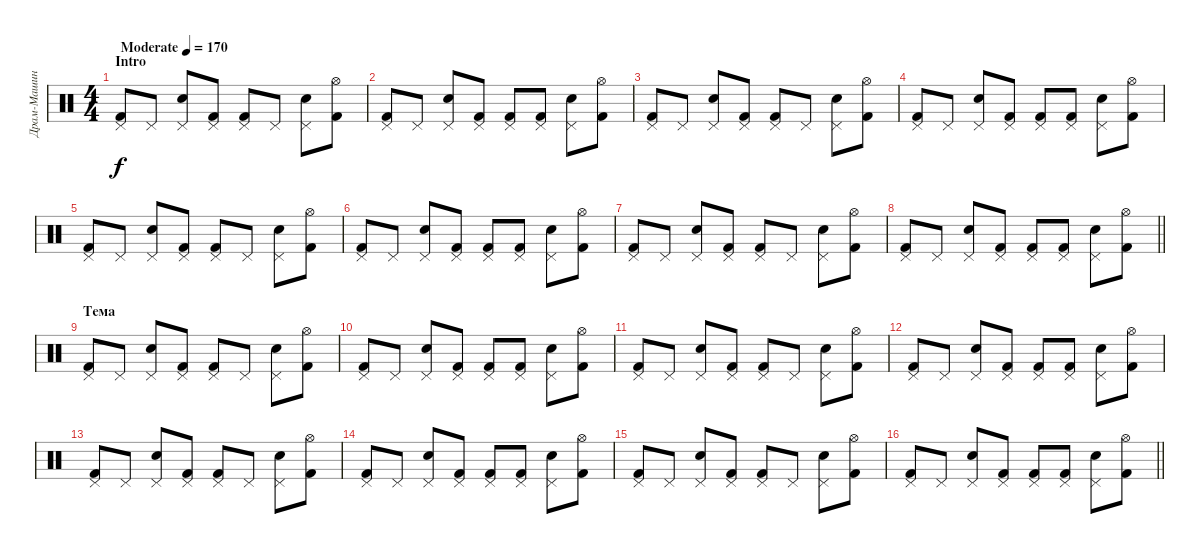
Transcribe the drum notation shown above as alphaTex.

\track ("Драм-Машина" "Драм-Машин") {instrument percussion}
\staff {score}
\articulation defaults
\ts (4 4)
\section ("" "Intro")
\tempo (170 "Moderate")
\clef neutral
\ks c
("Pedal Hi-Hat (hit)" "Kick (hit) 2").8{dy f} "Pedal Hi-Hat (hit)".8 ("Pedal Hi-Hat (hit)" "Electric Snare (hit)").8 ("Pedal Hi-Hat (hit)" "Kick (hit) 2").8 ("Pedal Hi-Hat (hit)" "Kick (hit) 2").8 "Pedal Hi-Hat (hit)".8 ("Pedal Hi-Hat (hit)" "Electric Snare (hit)").8 ("Hi-Hat (open)" "Kick (hit) 2").8 |
("Pedal Hi-Hat (hit)" "Kick (hit) 2").8 "Pedal Hi-Hat (hit)".8 ("Pedal Hi-Hat (hit)" "Electric Snare (hit)").8 ("Pedal Hi-Hat (hit)" "Kick (hit) 2").8 ("Pedal Hi-Hat (hit)" "Kick (hit) 2").8 ("Pedal Hi-Hat (hit)" "Kick (hit) 2").8 ("Pedal Hi-Hat (hit)" "Electric Snare (hit)").8 ("Hi-Hat (open)" "Kick (hit) 2").8 |
("Pedal Hi-Hat (hit)" "Kick (hit) 2").8 "Pedal Hi-Hat (hit)".8 ("Pedal Hi-Hat (hit)" "Electric Snare (hit)").8 ("Pedal Hi-Hat (hit)" "Kick (hit) 2").8 ("Pedal Hi-Hat (hit)" "Kick (hit) 2").8 "Pedal Hi-Hat (hit)".8 ("Pedal Hi-Hat (hit)" "Electric Snare (hit)").8 ("Hi-Hat (open)" "Kick (hit) 2").8 |
("Pedal Hi-Hat (hit)" "Kick (hit) 2").8 "Pedal Hi-Hat (hit)".8 ("Pedal Hi-Hat (hit)" "Electric Snare (hit)").8 ("Pedal Hi-Hat (hit)" "Kick (hit) 2").8 ("Pedal Hi-Hat (hit)" "Kick (hit) 2").8 ("Pedal Hi-Hat (hit)" "Kick (hit) 2").8 ("Pedal Hi-Hat (hit)" "Electric Snare (hit)").8 ("Hi-Hat (open)" "Kick (hit) 2").8 |
("Pedal Hi-Hat (hit)" "Kick (hit) 2").8 "Pedal Hi-Hat (hit)".8 ("Pedal Hi-Hat (hit)" "Electric Snare (hit)").8 ("Pedal Hi-Hat (hit)" "Kick (hit) 2").8 ("Pedal Hi-Hat (hit)" "Kick (hit) 2").8 "Pedal Hi-Hat (hit)".8 ("Pedal Hi-Hat (hit)" "Electric Snare (hit)").8 ("Hi-Hat (open)" "Kick (hit) 2").8 |
("Pedal Hi-Hat (hit)" "Kick (hit) 2").8 "Pedal Hi-Hat (hit)".8 ("Pedal Hi-Hat (hit)" "Electric Snare (hit)").8 ("Pedal Hi-Hat (hit)" "Kick (hit) 2").8 ("Pedal Hi-Hat (hit)" "Kick (hit) 2").8 ("Pedal Hi-Hat (hit)" "Kick (hit) 2").8 ("Pedal Hi-Hat (hit)" "Electric Snare (hit)").8 ("Hi-Hat (open)" "Kick (hit) 2").8 |
("Pedal Hi-Hat (hit)" "Kick (hit) 2").8 "Pedal Hi-Hat (hit)".8 ("Pedal Hi-Hat (hit)" "Electric Snare (hit)").8 ("Pedal Hi-Hat (hit)" "Kick (hit) 2").8 ("Pedal Hi-Hat (hit)" "Kick (hit) 2").8 "Pedal Hi-Hat (hit)".8 ("Pedal Hi-Hat (hit)" "Electric Snare (hit)").8 ("Hi-Hat (open)" "Kick (hit) 2").8 |
\barLineRight lightlight
("Pedal Hi-Hat (hit)" "Kick (hit) 2").8 "Pedal Hi-Hat (hit)".8 ("Pedal Hi-Hat (hit)" "Electric Snare (hit)").8 ("Pedal Hi-Hat (hit)" "Kick (hit) 2").8 ("Pedal Hi-Hat (hit)" "Kick (hit) 2").8 ("Pedal Hi-Hat (hit)" "Kick (hit) 2").8 ("Pedal Hi-Hat (hit)" "Electric Snare (hit)").8 ("Hi-Hat (open)" "Kick (hit) 2").8 |
\section ("" "Тема")
("Pedal Hi-Hat (hit)" "Kick (hit) 2").8 "Pedal Hi-Hat (hit)".8 ("Pedal Hi-Hat (hit)" "Electric Snare (hit)").8 ("Pedal Hi-Hat (hit)" "Kick (hit) 2").8 ("Pedal Hi-Hat (hit)" "Kick (hit) 2").8 "Pedal Hi-Hat (hit)".8 ("Pedal Hi-Hat (hit)" "Electric Snare (hit)").8 ("Hi-Hat (open)" "Kick (hit) 2").8 |
("Pedal Hi-Hat (hit)" "Kick (hit) 2").8 "Pedal Hi-Hat (hit)".8 ("Pedal Hi-Hat (hit)" "Electric Snare (hit)").8 ("Pedal Hi-Hat (hit)" "Kick (hit) 2").8 ("Pedal Hi-Hat (hit)" "Kick (hit) 2").8 ("Pedal Hi-Hat (hit)" "Kick (hit) 2").8 ("Pedal Hi-Hat (hit)" "Electric Snare (hit)").8 ("Hi-Hat (open)" "Kick (hit) 2").8 |
("Pedal Hi-Hat (hit)" "Kick (hit) 2").8 "Pedal Hi-Hat (hit)".8 ("Pedal Hi-Hat (hit)" "Electric Snare (hit)").8 ("Pedal Hi-Hat (hit)" "Kick (hit) 2").8 ("Pedal Hi-Hat (hit)" "Kick (hit) 2").8 "Pedal Hi-Hat (hit)".8 ("Pedal Hi-Hat (hit)" "Electric Snare (hit)").8 ("Hi-Hat (open)" "Kick (hit) 2").8 |
("Pedal Hi-Hat (hit)" "Kick (hit) 2").8 "Pedal Hi-Hat (hit)".8 ("Pedal Hi-Hat (hit)" "Electric Snare (hit)").8 ("Pedal Hi-Hat (hit)" "Kick (hit) 2").8 ("Pedal Hi-Hat (hit)" "Kick (hit) 2").8 ("Pedal Hi-Hat (hit)" "Kick (hit) 2").8 ("Pedal Hi-Hat (hit)" "Electric Snare (hit)").8 ("Hi-Hat (open)" "Kick (hit) 2").8 |
("Pedal Hi-Hat (hit)" "Kick (hit) 2").8 "Pedal Hi-Hat (hit)".8 ("Pedal Hi-Hat (hit)" "Electric Snare (hit)").8 ("Pedal Hi-Hat (hit)" "Kick (hit) 2").8 ("Pedal Hi-Hat (hit)" "Kick (hit) 2").8 "Pedal Hi-Hat (hit)".8 ("Pedal Hi-Hat (hit)" "Electric Snare (hit)").8 ("Hi-Hat (open)" "Kick (hit) 2").8 |
("Pedal Hi-Hat (hit)" "Kick (hit) 2").8 "Pedal Hi-Hat (hit)".8 ("Pedal Hi-Hat (hit)" "Electric Snare (hit)").8 ("Pedal Hi-Hat (hit)" "Kick (hit) 2").8 ("Pedal Hi-Hat (hit)" "Kick (hit) 2").8 ("Pedal Hi-Hat (hit)" "Kick (hit) 2").8 ("Pedal Hi-Hat (hit)" "Electric Snare (hit)").8 ("Hi-Hat (open)" "Kick (hit) 2").8 |
("Pedal Hi-Hat (hit)" "Kick (hit) 2").8 "Pedal Hi-Hat (hit)".8 ("Pedal Hi-Hat (hit)" "Electric Snare (hit)").8 ("Pedal Hi-Hat (hit)" "Kick (hit) 2").8 ("Pedal Hi-Hat (hit)" "Kick (hit) 2").8 "Pedal Hi-Hat (hit)".8 ("Pedal Hi-Hat (hit)" "Electric Snare (hit)").8 ("Hi-Hat (open)" "Kick (hit) 2").8 |
\barLineRight lightlight
("Pedal Hi-Hat (hit)" "Kick (hit) 2").8 "Pedal Hi-Hat (hit)".8 ("Pedal Hi-Hat (hit)" "Electric Snare (hit)").8 ("Pedal Hi-Hat (hit)" "Kick (hit) 2").8 ("Pedal Hi-Hat (hit)" "Kick (hit) 2").8 ("Pedal Hi-Hat (hit)" "Kick (hit) 2").8 ("Pedal Hi-Hat (hit)" "Electric Snare (hit)").8 ("Hi-Hat (open)" "Kick (hit) 2").8
